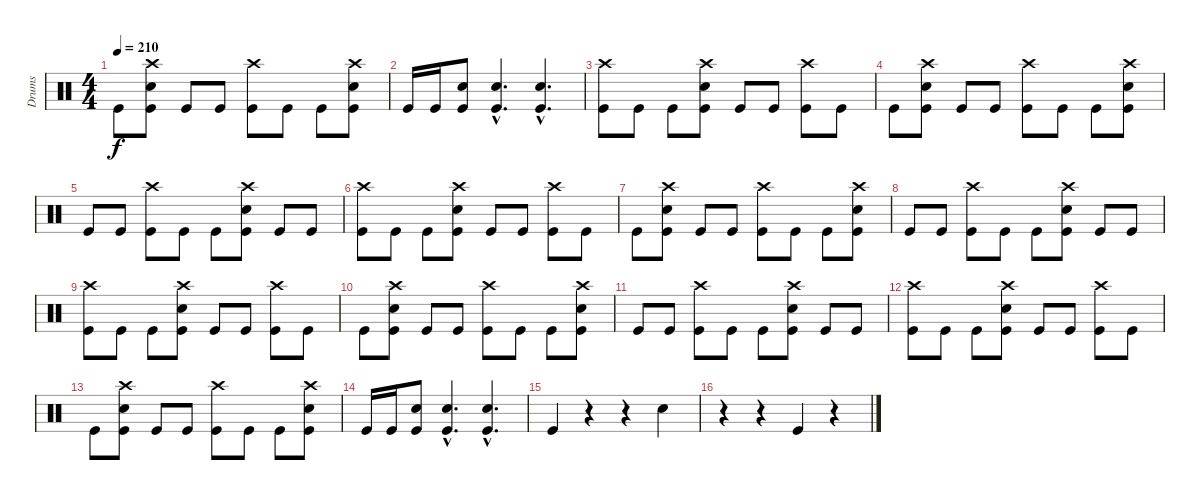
\track ("Drums" "Drums") {instrument percussion}
\staff {score}
\articulation defaults
\ts (4 4)
\tempo 210
\clef neutral
\ks c "Kick (hit)".8{dy f}
("Electric Snare (hit)" "Crash high (hit)" "Kick (hit)").8 "Kick (hit)".8 "Kick (hit)".8 ("Crash high (hit)" "Kick (hit)").8 "Kick (hit)".8 "Kick (hit)".8 ("Electric Snare (hit)" "Crash high (hit)" "Kick (hit)").8 |
"Kick (hit)".16 "Kick (hit)".16 ("Electric Snare (hit)" "Kick (hit)").8 ("Electric Snare (hit)"{hac} "Kick (hit)"{hac}).4{d} ("Electric Snare (hit)"{hac} "Kick (hit)"{hac}).4{d} |
("Crash high (hit)" "Kick (hit)").8 "Kick (hit)".8 "Kick (hit)".8 ("Electric Snare (hit)" "Crash high (hit)" "Kick (hit)").8 "Kick (hit)".8 "Kick (hit)".8 ("Crash high (hit)" "Kick (hit)").8 "Kick (hit)".8 |
"Kick (hit)".8 ("Electric Snare (hit)" "Crash high (hit)" "Kick (hit)").8 "Kick (hit)".8 "Kick (hit)".8 ("Crash high (hit)" "Kick (hit)").8 "Kick (hit)".8 "Kick (hit)".8 ("Electric Snare (hit)" "Crash high (hit)" "Kick (hit)").8 |
"Kick (hit)".8 "Kick (hit)".8 ("Crash high (hit)" "Kick (hit)").8 "Kick (hit)".8 "Kick (hit)".8 ("Electric Snare (hit)" "Crash high (hit)" "Kick (hit)").8 "Kick (hit)".8 "Kick (hit)".8 |
("Crash high (hit)" "Kick (hit)").8 "Kick (hit)".8 "Kick (hit)".8 ("Electric Snare (hit)" "Crash high (hit)" "Kick (hit)").8 "Kick (hit)".8 "Kick (hit)".8 ("Crash high (hit)" "Kick (hit)").8 "Kick (hit)".8 |
"Kick (hit)".8 ("Electric Snare (hit)" "Crash high (hit)" "Kick (hit)").8 "Kick (hit)".8 "Kick (hit)".8 ("Crash high (hit)" "Kick (hit)").8 "Kick (hit)".8 "Kick (hit)".8 ("Electric Snare (hit)" "Crash high (hit)" "Kick (hit)").8 |
"Kick (hit)".8 "Kick (hit)".8 ("Crash high (hit)" "Kick (hit)").8 "Kick (hit)".8 "Kick (hit)".8 ("Electric Snare (hit)" "Crash high (hit)" "Kick (hit)").8 "Kick (hit)".8 "Kick (hit)".8 |
("Crash high (hit)" "Kick (hit)").8 "Kick (hit)".8 "Kick (hit)".8 ("Electric Snare (hit)" "Crash high (hit)" "Kick (hit)").8 "Kick (hit)".8 "Kick (hit)".8 ("Crash high (hit)" "Kick (hit)").8 "Kick (hit)".8 |
"Kick (hit)".8 ("Electric Snare (hit)" "Crash high (hit)" "Kick (hit)").8 "Kick (hit)".8 "Kick (hit)".8 ("Crash high (hit)" "Kick (hit)").8 "Kick (hit)".8 "Kick (hit)".8 ("Electric Snare (hit)" "Crash high (hit)" "Kick (hit)").8 |
"Kick (hit)".8 "Kick (hit)".8 ("Crash high (hit)" "Kick (hit)").8 "Kick (hit)".8 "Kick (hit)".8 ("Electric Snare (hit)" "Crash high (hit)" "Kick (hit)").8 "Kick (hit)".8 "Kick (hit)".8 |
("Crash high (hit)" "Kick (hit)").8 "Kick (hit)".8 "Kick (hit)".8 ("Electric Snare (hit)" "Crash high (hit)" "Kick (hit)").8 "Kick (hit)".8 "Kick (hit)".8 ("Crash high (hit)" "Kick (hit)").8 "Kick (hit)".8 |
"Kick (hit)".8 ("Electric Snare (hit)" "Crash high (hit)" "Kick (hit)").8 "Kick (hit)".8 "Kick (hit)".8 ("Crash high (hit)" "Kick (hit)").8 "Kick (hit)".8 "Kick (hit)".8 ("Electric Snare (hit)" "Crash high (hit)" "Kick (hit)").8 |
"Kick (hit)".16 "Kick (hit)".16 ("Electric Snare (hit)" "Kick (hit)").8 ("Electric Snare (hit)"{hac} "Kick (hit)"{hac}).4{d} ("Electric Snare (hit)"{hac} "Kick (hit)"{hac}).4{d} |
"Kick (hit)".4 r.4 r.4 "Electric Snare (hit)".4 |
r.4 r.4 "Kick (hit)".4 r.4
